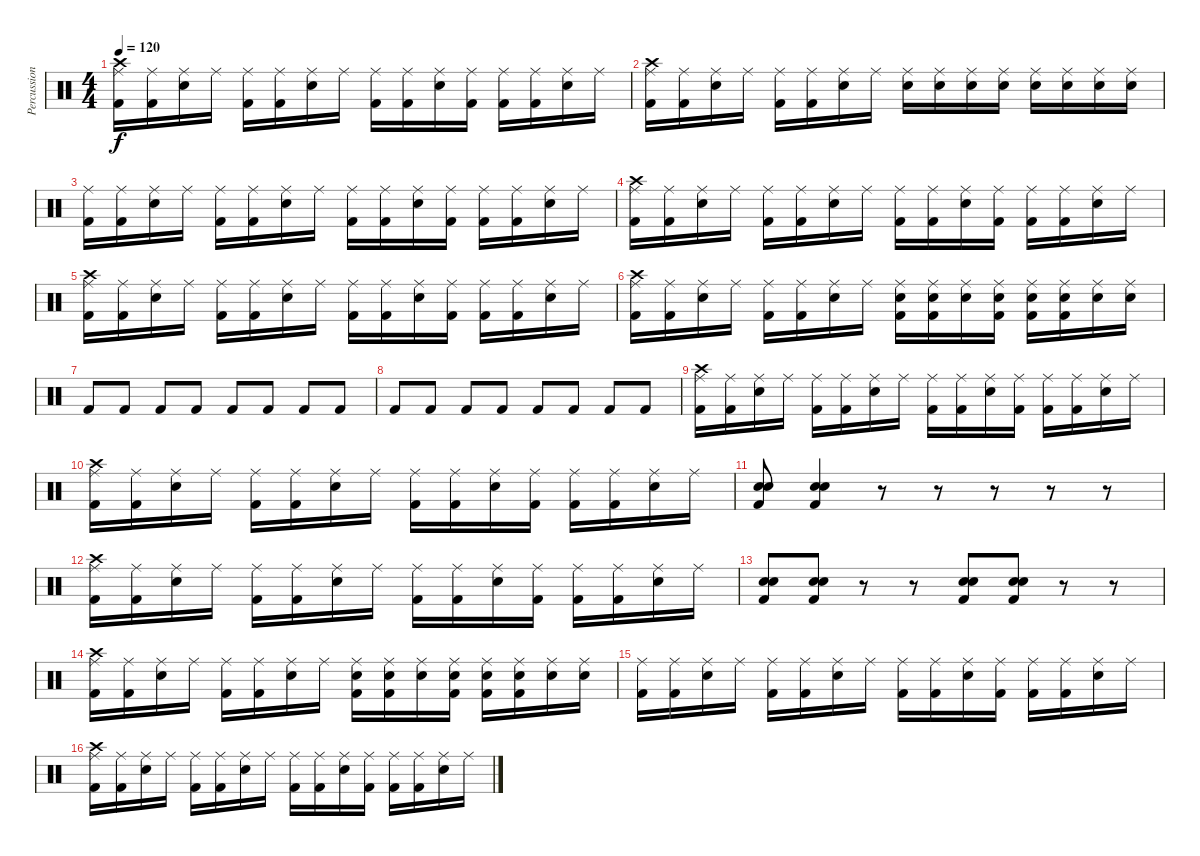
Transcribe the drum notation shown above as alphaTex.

\track ("Percussions" "Percussion") {instrument percussion}
\staff {score}
\articulation defaults
\ts (4 4)
\tempo 120
\clef neutral
\ks c
("Ride (middle)" "Crash high (hit)" "Kick (hit) 2").16{dy f} ("Ride (middle)" "Kick (hit) 2").16 ("Ride (middle)" "Electric Snare (hit)").16 "Ride (middle)".16 ("Ride (middle)" "Kick (hit) 2").16 ("Ride (middle)" "Kick (hit) 2").16 ("Ride (middle)" "Electric Snare (hit)").16 "Ride (middle)".16 ("Ride (middle)" "Kick (hit) 2").16 ("Ride (middle)" "Kick (hit) 2").16 ("Ride (middle)" "Electric Snare (hit)").16 ("Ride (middle)" "Kick (hit) 2").16 ("Ride (middle)" "Kick (hit) 2").16 ("Ride (middle)" "Kick (hit) 2").16 ("Ride (middle)" "Electric Snare (hit)").16 "Ride (middle)".16 |
("Ride (middle)" "Crash high (hit)" "Kick (hit) 2").16 ("Ride (middle)" "Kick (hit) 2").16 ("Ride (middle)" "Electric Snare (hit)").16 "Ride (middle)".16 ("Ride (middle)" "Kick (hit) 2").16 ("Ride (middle)" "Kick (hit) 2").16 ("Ride (middle)" "Electric Snare (hit)").16 "Ride (middle)".16 ("Ride (middle)" "Electric Snare (hit)").16 ("Ride (middle)" "Electric Snare (hit)").16 ("Ride (middle)" "Electric Snare (hit)").16 ("Ride (middle)" "Electric Snare (hit)").16 ("Ride (middle)" "Electric Snare (hit)").16 ("Ride (middle)" "Electric Snare (hit)").16 ("Ride (middle)" "Electric Snare (hit)").16 ("Ride (middle)" "Electric Snare (hit)").16 |
("Ride (middle)" "Kick (hit) 2").16 ("Ride (middle)" "Kick (hit) 2").16 ("Ride (middle)" "Electric Snare (hit)").16 "Ride (middle)".16 ("Ride (middle)" "Kick (hit) 2").16 ("Ride (middle)" "Kick (hit) 2").16 ("Ride (middle)" "Electric Snare (hit)").16 "Ride (middle)".16 ("Ride (middle)" "Kick (hit) 2").16 ("Ride (middle)" "Kick (hit) 2").16 ("Ride (middle)" "Electric Snare (hit)").16 ("Ride (middle)" "Kick (hit) 2").16 ("Ride (middle)" "Kick (hit) 2").16 ("Ride (middle)" "Kick (hit) 2").16 ("Ride (middle)" "Electric Snare (hit)").16 "Ride (middle)".16 |
("Ride (middle)" "Crash high (hit)" "Kick (hit) 2").16 ("Ride (middle)" "Kick (hit) 2").16 ("Ride (middle)" "Electric Snare (hit)").16 "Ride (middle)".16 ("Ride (middle)" "Kick (hit) 2").16 ("Ride (middle)" "Kick (hit) 2").16 ("Ride (middle)" "Electric Snare (hit)").16 "Ride (middle)".16 ("Ride (middle)" "Kick (hit) 2").16 ("Ride (middle)" "Kick (hit) 2").16 ("Ride (middle)" "Electric Snare (hit)").16 ("Ride (middle)" "Kick (hit) 2").16 ("Ride (middle)" "Kick (hit) 2").16 ("Ride (middle)" "Kick (hit) 2").16 ("Ride (middle)" "Electric Snare (hit)").16 "Ride (middle)".16 |
("Ride (middle)" "Crash high (hit)" "Kick (hit) 2").16 ("Ride (middle)" "Kick (hit) 2").16 ("Ride (middle)" "Electric Snare (hit)").16 "Ride (middle)".16 ("Ride (middle)" "Kick (hit) 2").16 ("Ride (middle)" "Kick (hit) 2").16 ("Ride (middle)" "Electric Snare (hit)").16 "Ride (middle)".16 ("Ride (middle)" "Kick (hit) 2").16 ("Ride (middle)" "Kick (hit) 2").16 ("Ride (middle)" "Electric Snare (hit)").16 ("Ride (middle)" "Kick (hit) 2").16 ("Ride (middle)" "Kick (hit) 2").16 ("Ride (middle)" "Kick (hit) 2").16 ("Ride (middle)" "Electric Snare (hit)").16 "Ride (middle)".16 |
("Ride (middle)" "Crash high (hit)" "Kick (hit) 2").16 ("Ride (middle)" "Kick (hit) 2").16 ("Ride (middle)" "Electric Snare (hit)").16 "Ride (middle)".16 ("Ride (middle)" "Kick (hit) 2").16 ("Ride (middle)" "Kick (hit) 2").16 ("Ride (middle)" "Electric Snare (hit)").16 "Ride (middle)".16 ("Ride (middle)" "Electric Snare (hit)" "Kick (hit) 2").16 ("Ride (middle)" "Electric Snare (hit)" "Kick (hit) 2").16 ("Ride (middle)" "Electric Snare (hit)").16 ("Ride (middle)" "Electric Snare (hit)" "Kick (hit) 2").16 ("Ride (middle)" "Electric Snare (hit)" "Kick (hit) 2").16 ("Ride (middle)" "Electric Snare (hit)" "Kick (hit) 2").16 ("Ride (middle)" "Electric Snare (hit)").16 ("Ride (middle)" "Electric Snare (hit)").16 |
"Kick (hit) 2".8 "Kick (hit) 2".8 "Kick (hit) 2".8 "Kick (hit) 2".8 "Kick (hit) 2".8 "Kick (hit) 2".8 "Kick (hit) 2".8 "Kick (hit) 2".8 |
"Kick (hit) 2".8 "Kick (hit) 2".8 "Kick (hit) 2".8 "Kick (hit) 2".8 "Kick (hit) 2".8 "Kick (hit) 2".8 "Kick (hit) 2".8 "Kick (hit) 2".8 |
("Ride (middle)" "Crash high (hit)" "Kick (hit) 2").16 ("Ride (middle)" "Kick (hit) 2").16 ("Ride (middle)" "Electric Snare (hit)").16 "Ride (middle)".16 ("Ride (middle)" "Kick (hit) 2").16 ("Ride (middle)" "Kick (hit) 2").16 ("Ride (middle)" "Electric Snare (hit)").16 "Ride (middle)".16 ("Ride (middle)" "Kick (hit) 2").16 ("Ride (middle)" "Kick (hit) 2").16 ("Ride (middle)" "Electric Snare (hit)").16 ("Ride (middle)" "Kick (hit) 2").16 ("Ride (middle)" "Kick (hit) 2").16 ("Ride (middle)" "Kick (hit) 2").16 ("Ride (middle)" "Electric Snare (hit)").16 "Ride (middle)".16 |
("Ride (middle)" "Crash high (hit)" "Kick (hit) 2").16 ("Ride (middle)" "Kick (hit) 2").16 ("Ride (middle)" "Electric Snare (hit)").16 "Ride (middle)".16 ("Ride (middle)" "Kick (hit) 2").16 ("Ride (middle)" "Kick (hit) 2").16 ("Ride (middle)" "Electric Snare (hit)").16 "Ride (middle)".16 ("Ride (middle)" "Kick (hit) 2").16 ("Ride (middle)" "Kick (hit) 2").16 ("Ride (middle)" "Electric Snare (hit)").16 ("Ride (middle)" "Kick (hit) 2").16 ("Ride (middle)" "Kick (hit) 2").16 ("Ride (middle)" "Kick (hit) 2").16 ("Ride (middle)" "Electric Snare (hit)").16 "Ride (middle)".16 |
("Snare (hit) 2" "Kick (hit) 2" "Electric Snare (hit)").8 ("Snare (hit) 2" "Kick (hit) 2" "Electric Snare (hit)").4 r.8 r.8 r.8 r.8 r.8 |
("Ride (middle)" "Crash high (hit)" "Kick (hit) 2").16 ("Ride (middle)" "Kick (hit) 2").16 ("Ride (middle)" "Electric Snare (hit)").16 "Ride (middle)".16 ("Ride (middle)" "Kick (hit) 2").16 ("Ride (middle)" "Kick (hit) 2").16 ("Ride (middle)" "Electric Snare (hit)").16 "Ride (middle)".16 ("Ride (middle)" "Kick (hit) 2").16 ("Ride (middle)" "Kick (hit) 2").16 ("Ride (middle)" "Electric Snare (hit)").16 ("Ride (middle)" "Kick (hit) 2").16 ("Ride (middle)" "Kick (hit) 2").16 ("Ride (middle)" "Kick (hit) 2").16 ("Ride (middle)" "Electric Snare (hit)").16 "Ride (middle)".16 |
("Electric Snare (hit)" "Snare (hit) 2" "Kick (hit) 2").8 ("Electric Snare (hit)" "Snare (hit) 2" "Kick (hit) 2").8 r.8 r.8 ("Electric Snare (hit)" "Snare (hit) 2" "Kick (hit) 2").8 ("Electric Snare (hit)" "Snare (hit) 2" "Kick (hit) 2").8 r.8 r.8 |
("Ride (middle)" "Crash high (hit)" "Kick (hit) 2").16 ("Ride (middle)" "Kick (hit) 2").16 ("Ride (middle)" "Electric Snare (hit)").16 "Ride (middle)".16 ("Ride (middle)" "Kick (hit) 2").16 ("Ride (middle)" "Kick (hit) 2").16 ("Ride (middle)" "Electric Snare (hit)").16 "Ride (middle)".16 ("Ride (middle)" "Electric Snare (hit)" "Kick (hit) 2").16 ("Ride (middle)" "Electric Snare (hit)" "Kick (hit) 2").16 ("Ride (middle)" "Electric Snare (hit)").16 ("Ride (middle)" "Electric Snare (hit)" "Kick (hit) 2").16 ("Ride (middle)" "Electric Snare (hit)" "Kick (hit) 2").16 ("Ride (middle)" "Electric Snare (hit)" "Kick (hit) 2").16 ("Ride (middle)" "Electric Snare (hit)").16 ("Ride (middle)" "Electric Snare (hit)").16 |
("Ride (middle)" "Kick (hit) 2").16 ("Ride (middle)" "Kick (hit) 2").16 ("Ride (middle)" "Electric Snare (hit)").16 "Ride (middle)".16 ("Ride (middle)" "Kick (hit) 2").16 ("Ride (middle)" "Kick (hit) 2").16 ("Ride (middle)" "Electric Snare (hit)").16 "Ride (middle)".16 ("Ride (middle)" "Kick (hit) 2").16 ("Ride (middle)" "Kick (hit) 2").16 ("Ride (middle)" "Electric Snare (hit)").16 ("Ride (middle)" "Kick (hit) 2").16 ("Ride (middle)" "Kick (hit) 2").16 ("Ride (middle)" "Kick (hit) 2").16 ("Ride (middle)" "Electric Snare (hit)").16 "Ride (middle)".16 |
("Ride (middle)" "Crash high (hit)" "Kick (hit) 2").16 ("Ride (middle)" "Kick (hit) 2").16 ("Ride (middle)" "Electric Snare (hit)").16 "Ride (middle)".16 ("Ride (middle)" "Kick (hit) 2").16 ("Ride (middle)" "Kick (hit) 2").16 ("Ride (middle)" "Electric Snare (hit)").16 "Ride (middle)".16 ("Ride (middle)" "Kick (hit) 2").16 ("Ride (middle)" "Kick (hit) 2").16 ("Ride (middle)" "Electric Snare (hit)").16 ("Ride (middle)" "Kick (hit) 2").16 ("Ride (middle)" "Kick (hit) 2").16 ("Ride (middle)" "Kick (hit) 2").16 ("Ride (middle)" "Electric Snare (hit)").16 "Ride (middle)".16
